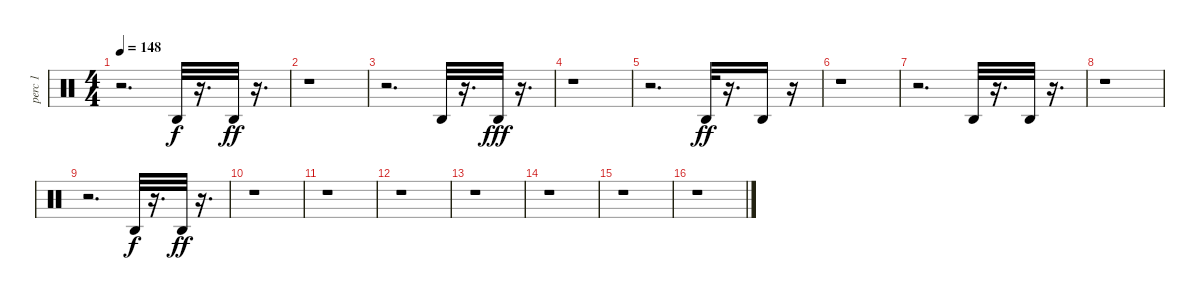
\track ("perc 1              " "perc 1    ") {instrument percussion}
\staff {score}
\articulation defaults
\ts (4 4)
\tempo 148
\clef neutral
\ks c
r.2{d dy ff} "Agogo high (hit)".32{dy f} r.16{d} "Agogo high (hit)".32{dy ff} r.16{d} |
r.1 |
r.2{d} "Agogo high (hit)".32 r.16{d} "Agogo high (hit)".32{dy fff} r.16{d} |
r.1 |
r.2{d} "Agogo high (hit)".32{dy ff} r.16{d} "Agogo high (hit)".16 r.16 |
r.1 |
r.2{d} "Agogo high (hit)".32 r.16{d} "Agogo high (hit)".32 r.16{d} |
r.1 |
r.2{d} "Agogo high (hit)".32{dy f} r.16{d} "Agogo high (hit)".32{dy ff} r.16{d} |
r.1 |
r.1 |
r.1 |
r.1 |
r.1 |
r.1 |
r.1
